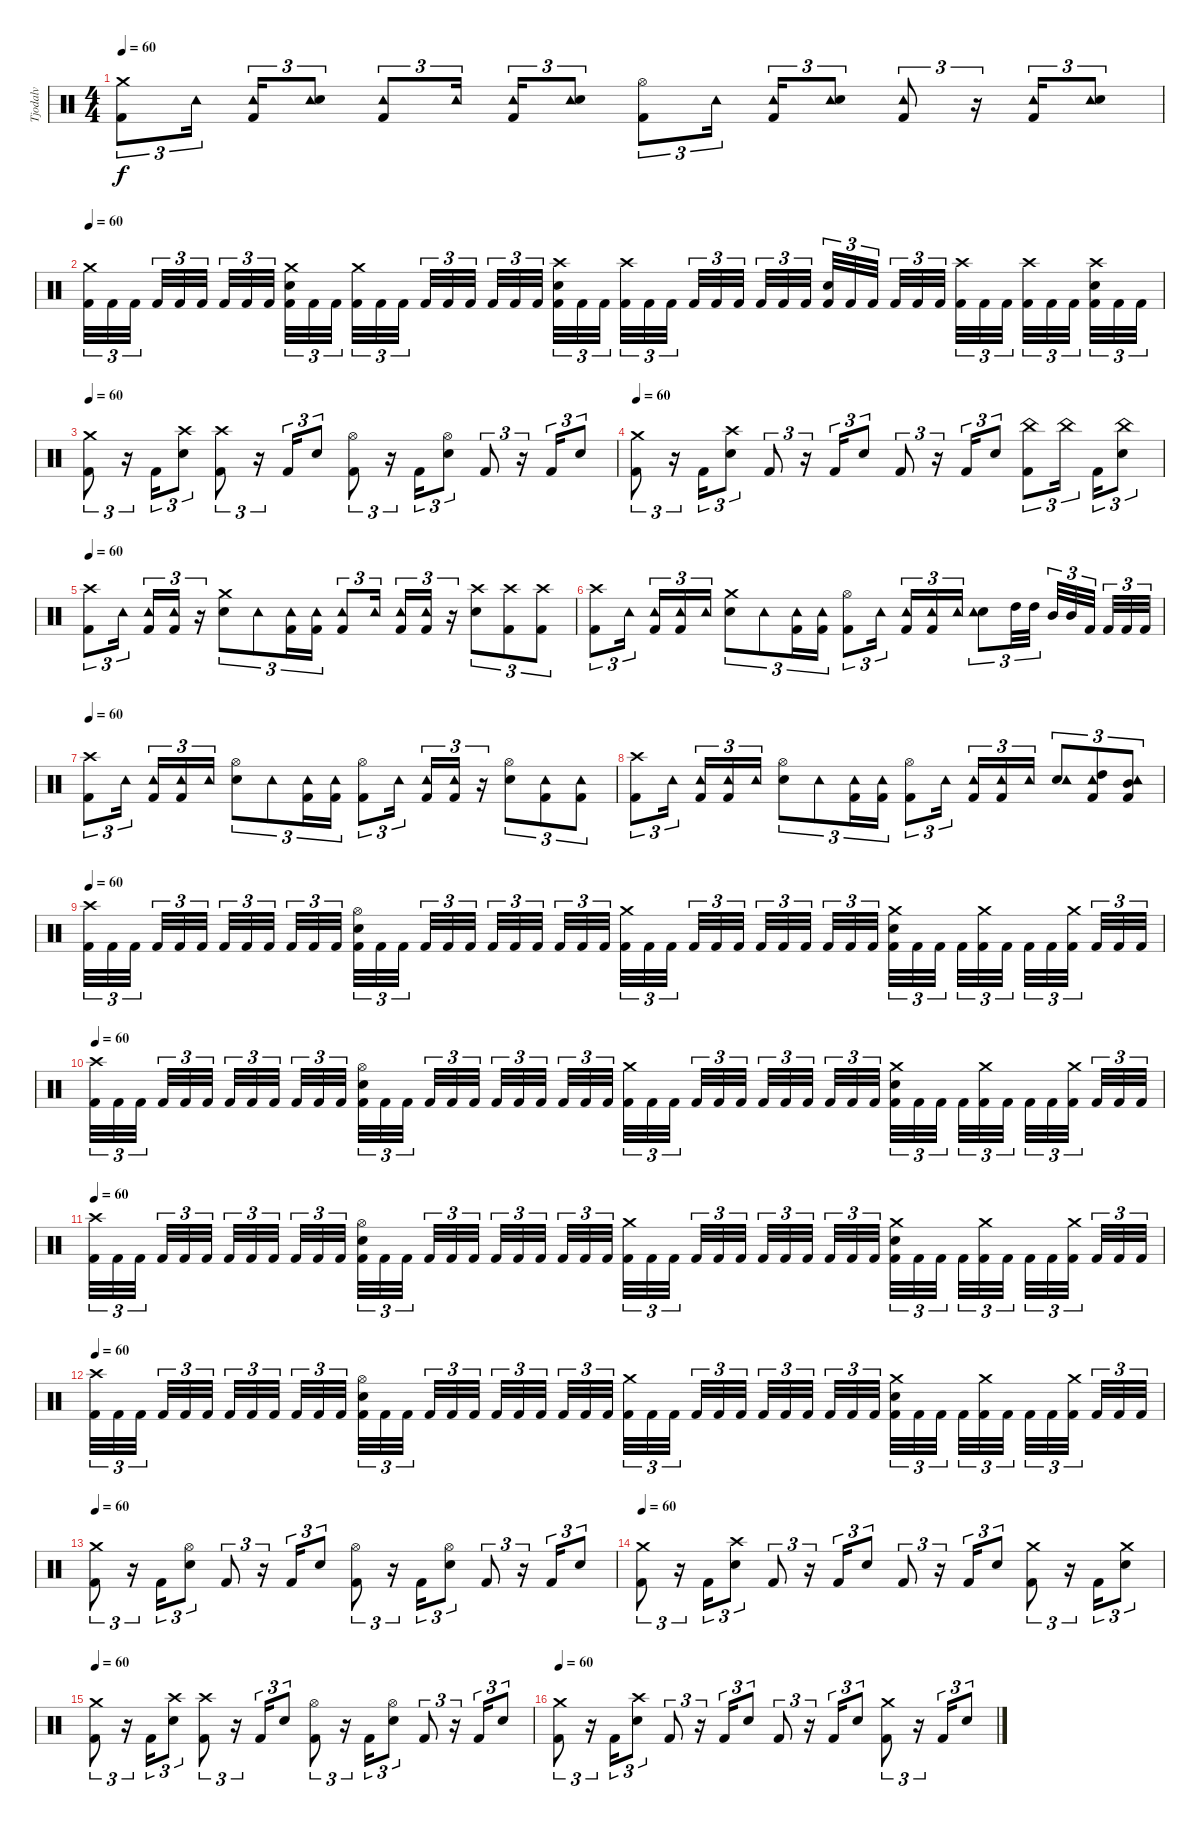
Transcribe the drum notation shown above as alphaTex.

\track ("Tjodalv" "Tjodalv") {instrument percussion}
\staff {score}
\articulation defaults
\ts (4 4)
\tempo 60
\clef neutral
\ks c
("Crash medium (hit)" "Kick (hit) 2").8{tu (3 2) dy f} "Tambourine (hit)".16{tu (3 2)} ("Tambourine (hit)" "Kick (hit) 2").16{tu (3 2)} ("Tambourine (hit)" "Snare (hit) 2").8{tu (3 2)} ("Kick (hit) 2" "Tambourine (hit)").8{tu (3 2)} "Tambourine (hit)".16{tu (3 2)} ("Tambourine (hit)" "Kick (hit) 2").16{tu (3 2)} ("Tambourine (hit)" "Snare (hit) 2").8{tu (3 2)} ("Hi-Hat (open)" "Kick (hit) 2").8{tu (3 2)} "Tambourine (hit)".16{tu (3 2)} ("Tambourine (hit)" "Kick (hit) 2").16{tu (3 2)} ("Tambourine (hit)" "Snare (hit) 2").8{tu (3 2)} ("Kick (hit) 2" "Tambourine (hit)").8{tu (3 2)} r.16{tu (3 2)} ("Tambourine (hit)" "Kick (hit) 2").16{tu (3 2)} ("Tambourine (hit)" "Snare (hit) 2").8{tu (3 2)} |
\tempo 60
("Kick (hit) 2" "Crash medium (hit)").32{tu (3 2)} "Kick (hit) 2".32{tu (3 2)} "Kick (hit) 2".32{tu (3 2)} "Kick (hit) 2".32{tu (3 2)} "Kick (hit) 2".32{tu (3 2)} "Kick (hit) 2".32{tu (3 2)} "Kick (hit) 2".32{tu (3 2)} "Kick (hit) 2".32{tu (3 2)} "Kick (hit) 2".32{tu (3 2)} ("Crash medium (hit)" "Kick (hit) 2" "Snare (hit) 2").32{tu (3 2)} "Kick (hit) 2".32{tu (3 2)} "Kick (hit) 2".32{tu (3 2)} ("Crash medium (hit)" "Kick (hit) 2").32{tu (3 2)} "Kick (hit) 2".32{tu (3 2)} "Kick (hit) 2".32{tu (3 2)} "Kick (hit) 2".32{tu (3 2)} "Kick (hit) 2".32{tu (3 2)} "Kick (hit) 2".32{tu (3 2)} "Kick (hit) 2".32{tu (3 2)} "Kick (hit) 2".32{tu (3 2)} "Kick (hit) 2".32{tu (3 2)} ("Crash high (hit)" "Kick (hit) 2" "Snare (hit) 2").32{tu (3 2)} "Kick (hit) 2".32{tu (3 2)} "Kick (hit) 2".32{tu (3 2)} ("Crash high (hit)" "Kick (hit) 2").32{tu (3 2)} "Kick (hit) 2".32{tu (3 2)} "Kick (hit) 2".32{tu (3 2)} "Kick (hit) 2".32{tu (3 2)} "Kick (hit) 2".32{tu (3 2)} "Kick (hit) 2".32{tu (3 2)} "Kick (hit) 2".32{tu (3 2)} "Kick (hit) 2".32{tu (3 2)} "Kick (hit) 2".32{tu (3 2)} ("Kick (hit) 2" "Snare (hit) 2").32{tu (3 2)} "Kick (hit) 2".32{tu (3 2)} "Kick (hit) 2".32{tu (3 2)} "Kick (hit) 2".32{tu (3 2)} "Kick (hit) 2".32{tu (3 2)} "Kick (hit) 2".32{tu (3 2)} ("Crash high (hit)" "Kick (hit) 2").32{tu (3 2)} "Kick (hit) 2".32{tu (3 2)} "Kick (hit) 2".32{tu (3 2)} ("Crash high (hit)" "Kick (hit) 2").32{tu (3 2)} "Kick (hit) 2".32{tu (3 2)} "Kick (hit) 2".32{tu (3 2)} ("Crash high (hit)" "Kick (hit) 2" "Snare (hit) 2").32{tu (3 2)} "Kick (hit) 2".32{tu (3 2)} "Kick (hit) 2".32{tu (3 2)} |
\tempo 60
("Crash medium (hit)" "Kick (hit) 2").8{tu (3 2)} r.16{tu (3 2)} "Kick (hit) 2".16{tu (3 2)} ("Crash high (hit)" "Snare (hit) 2").8{tu (3 2)} ("Crash high (hit)" "Kick (hit) 2").8{tu (3 2)} r.16{tu (3 2)} "Kick (hit) 2".16{tu (3 2)} "Snare (hit) 2".8{tu (3 2)} ("Hi-Hat (open)" "Kick (hit) 2").8{tu (3 2)} r.16{tu (3 2)} "Kick (hit) 2".16{tu (3 2)} ("Hi-Hat (open)" "Snare (hit) 2").8{tu (3 2)} "Kick (hit) 2".8{tu (3 2)} r.16{tu (3 2)} "Kick (hit) 2".16{tu (3 2)} "Snare (hit) 2".8{tu (3 2)} |
\tempo 60
("Crash medium (hit)" "Kick (hit) 2").8{tu (3 2)} r.16{tu (3 2)} "Kick (hit) 2".16{tu (3 2)} ("Crash high (hit)" "Snare (hit) 2").8{tu (3 2)} "Kick (hit) 2".8{tu (3 2)} r.16{tu (3 2)} "Kick (hit) 2".16{tu (3 2)} "Snare (hit) 2".8{tu (3 2)} "Kick (hit) 2".8{tu (3 2)} r.16{tu (3 2)} "Kick (hit) 2".16{tu (3 2)} "Snare (hit) 2".8{tu (3 2)} ("Kick (hit) 2" "China (hit)").8{tu (3 2)} "China (hit)".16{tu (3 2)} "Kick (hit) 2".16{tu (3 2)} ("China (hit)" "Snare (hit) 2").8{tu (3 2)} |
\tempo 60
("Crash high (hit)" "Kick (hit) 2").8{tu (3 2)} "Tambourine (hit)".16{tu (3 2)} ("Tambourine (hit)" "Kick (hit) 2").16{tu (3 2)} ("Tambourine (hit)" "Kick (hit) 2").16{tu (3 2)} r.16{tu (3 2)} ("Snare (hit) 2" "Crash medium (hit)").8{tu (3 2)} "Tambourine (hit)".8{tu (3 2)} ("Kick (hit) 2" "Tambourine (hit)").16{tu (3 2)} ("Kick (hit) 2" "Tambourine (hit)").16{tu (3 2)} ("Tambourine (hit)" "Kick (hit) 2").8{tu (3 2)} "Tambourine (hit)".16{tu (3 2)} ("Tambourine (hit)" "Kick (hit) 2").16{tu (3 2)} ("Tambourine (hit)" "Kick (hit) 2").16{tu (3 2)} r.16{tu (3 2)} ("Snare (hit) 2" "Crash high (hit)").8{tu (3 2)} ("Kick (hit) 2" "Crash high (hit)").8{tu (3 2)} ("Kick (hit) 2" "Crash high (hit)").8{tu (3 2)} |
("Crash high (hit)" "Kick (hit) 2").8{tu (3 2)} "Tambourine (hit)".16{tu (3 2)} ("Tambourine (hit)" "Kick (hit) 2").16{tu (3 2)} ("Tambourine (hit)" "Kick (hit) 2").16{tu (3 2)} "Tambourine (hit)".16{tu (3 2)} ("Snare (hit) 2" "Crash medium (hit)").8{tu (3 2)} "Tambourine (hit)".8{tu (3 2)} ("Kick (hit) 2" "Tambourine (hit)").16{tu (3 2)} ("Kick (hit) 2" "Tambourine (hit)").16{tu (3 2)} ("Hi-Hat (open)" "Kick (hit) 2").8{tu (3 2)} "Tambourine (hit)".16{tu (3 2)} ("Tambourine (hit)" "Kick (hit) 2").16{tu (3 2)} ("Tambourine (hit)" "Kick (hit) 2").16{tu (3 2)} "Tambourine (hit)".16{tu (3 2)} ("Snare (hit) 2" "Tambourine (hit)").8{tu (3 2)} "High Tom (hit)".32{tu (3 2)} "High Tom (hit)".32{tu (3 2)} "Mid Tom (hit)".32{tu (3 2)} "Mid Tom (hit)".32{tu (3 2)} "Kick (hit) 2".32{tu (3 2)} "Kick (hit) 2".32{tu (3 2)} "Kick (hit) 2".32{tu (3 2)} "Kick (hit) 2".32{tu (3 2)} |
\tempo 60
("Crash high (hit)" "Kick (hit) 2").8{tu (3 2)} "Tambourine (hit)".16{tu (3 2)} ("Kick (hit) 2" "Tambourine (hit)").16{tu (3 2)} ("Kick (hit) 2" "Tambourine (hit)").16{tu (3 2)} "Tambourine (hit)".16{tu (3 2)} ("Snare (hit) 2" "Hi-Hat (open)").8{tu (3 2)} "Tambourine (hit)".8{tu (3 2)} ("Kick (hit) 2" "Tambourine (hit)").16{tu (3 2)} ("Kick (hit) 2" "Tambourine (hit)").16{tu (3 2)} ("Hi-Hat (open)" "Kick (hit) 2").8{tu (3 2)} "Tambourine (hit)".16{tu (3 2)} ("Kick (hit) 2" "Tambourine (hit)").16{tu (3 2)} ("Kick (hit) 2" "Tambourine (hit)").16{tu (3 2)} r.16{tu (3 2)} ("Snare (hit) 2" "Hi-Hat (open)").8{tu (3 2)} ("Kick (hit) 2" "Tambourine (hit)").8{tu (3 2)} ("Kick (hit) 2" "Tambourine (hit)").8{tu (3 2)} |
("Crash high (hit)" "Kick (hit) 2").8{tu (3 2)} "Tambourine (hit)".16{tu (3 2)} ("Kick (hit) 2" "Tambourine (hit)").16{tu (3 2)} ("Kick (hit) 2" "Tambourine (hit)").16{tu (3 2)} "Tambourine (hit)".16{tu (3 2)} ("Snare (hit) 2" "Hi-Hat (open)").8{tu (3 2)} "Tambourine (hit)".8{tu (3 2)} ("Kick (hit) 2" "Tambourine (hit)").16{tu (3 2)} ("Kick (hit) 2" "Tambourine (hit)").16{tu (3 2)} ("Hi-Hat (open)" "Kick (hit) 2").8{tu (3 2)} "Tambourine (hit)".16{tu (3 2)} ("Kick (hit) 2" "Tambourine (hit)").16{tu (3 2)} ("Kick (hit) 2" "Tambourine (hit)").16{tu (3 2)} "Tambourine (hit)".16{tu (3 2)} ("Snare (hit) 2" "Tambourine (hit)").8{tu (3 2)} ("Kick (hit) 2" "High Tom (hit)" "Tambourine (hit)").8{tu (3 2)} ("Kick (hit) 2" "Mid Tom (hit)" "Tambourine (hit)").8{tu (3 2)} |
\tempo 60
("Kick (hit) 2" "Crash high (hit)").32{tu (3 2)} "Kick (hit) 2".32{tu (3 2)} "Kick (hit) 2".32{tu (3 2)} "Kick (hit) 2".32{tu (3 2)} "Kick (hit) 2".32{tu (3 2)} "Kick (hit) 2".32{tu (3 2)} "Kick (hit) 2".32{tu (3 2)} "Kick (hit) 2".32{tu (3 2)} "Kick (hit) 2".32{tu (3 2)} "Kick (hit) 2".32{tu (3 2)} "Kick (hit) 2".32{tu (3 2)} "Kick (hit) 2".32{tu (3 2)} ("Kick (hit) 2" "Snare (hit) 2" "Hi-Hat (open)").32{tu (3 2)} "Kick (hit) 2".32{tu (3 2)} "Kick (hit) 2".32{tu (3 2)} "Kick (hit) 2".32{tu (3 2)} "Kick (hit) 2".32{tu (3 2)} "Kick (hit) 2".32{tu (3 2)} "Kick (hit) 2".32{tu (3 2)} "Kick (hit) 2".32{tu (3 2)} "Kick (hit) 2".32{tu (3 2)} "Kick (hit) 2".32{tu (3 2)} "Kick (hit) 2".32{tu (3 2)} "Kick (hit) 2".32{tu (3 2)} ("Kick (hit) 2" "Crash medium (hit)").32{tu (3 2)} "Kick (hit) 2".32{tu (3 2)} "Kick (hit) 2".32{tu (3 2)} "Kick (hit) 2".32{tu (3 2)} "Kick (hit) 2".32{tu (3 2)} "Kick (hit) 2".32{tu (3 2)} "Kick (hit) 2".32{tu (3 2)} "Kick (hit) 2".32{tu (3 2)} "Kick (hit) 2".32{tu (3 2)} "Kick (hit) 2".32{tu (3 2)} "Kick (hit) 2".32{tu (3 2)} "Kick (hit) 2".32{tu (3 2)} ("Kick (hit) 2" "Snare (hit) 2" "Crash medium (hit)").32{tu (3 2)} "Kick (hit) 2".32{tu (3 2)} "Kick (hit) 2".32{tu (3 2)} "Kick (hit) 2".32{tu (3 2)} ("Kick (hit) 2" "Crash medium (hit)").32{tu (3 2)} "Kick (hit) 2".32{tu (3 2)} "Kick (hit) 2".32{tu (3 2)} "Kick (hit) 2".32{tu (3 2)} ("Kick (hit) 2" "Crash medium (hit)").32{tu (3 2)} "Kick (hit) 2".32{tu (3 2)} "Kick (hit) 2".32{tu (3 2)} "Kick (hit) 2".32{tu (3 2)} |
\tempo 60
("Kick (hit) 2" "Crash high (hit)").32{tu (3 2)} "Kick (hit) 2".32{tu (3 2)} "Kick (hit) 2".32{tu (3 2)} "Kick (hit) 2".32{tu (3 2)} "Kick (hit) 2".32{tu (3 2)} "Kick (hit) 2".32{tu (3 2)} "Kick (hit) 2".32{tu (3 2)} "Kick (hit) 2".32{tu (3 2)} "Kick (hit) 2".32{tu (3 2)} "Kick (hit) 2".32{tu (3 2)} "Kick (hit) 2".32{tu (3 2)} "Kick (hit) 2".32{tu (3 2)} ("Kick (hit) 2" "Snare (hit) 2" "Hi-Hat (open)").32{tu (3 2)} "Kick (hit) 2".32{tu (3 2)} "Kick (hit) 2".32{tu (3 2)} "Kick (hit) 2".32{tu (3 2)} "Kick (hit) 2".32{tu (3 2)} "Kick (hit) 2".32{tu (3 2)} "Kick (hit) 2".32{tu (3 2)} "Kick (hit) 2".32{tu (3 2)} "Kick (hit) 2".32{tu (3 2)} "Kick (hit) 2".32{tu (3 2)} "Kick (hit) 2".32{tu (3 2)} "Kick (hit) 2".32{tu (3 2)} ("Kick (hit) 2" "Crash medium (hit)").32{tu (3 2)} "Kick (hit) 2".32{tu (3 2)} "Kick (hit) 2".32{tu (3 2)} "Kick (hit) 2".32{tu (3 2)} "Kick (hit) 2".32{tu (3 2)} "Kick (hit) 2".32{tu (3 2)} "Kick (hit) 2".32{tu (3 2)} "Kick (hit) 2".32{tu (3 2)} "Kick (hit) 2".32{tu (3 2)} "Kick (hit) 2".32{tu (3 2)} "Kick (hit) 2".32{tu (3 2)} "Kick (hit) 2".32{tu (3 2)} ("Kick (hit) 2" "Snare (hit) 2" "Crash medium (hit)").32{tu (3 2)} "Kick (hit) 2".32{tu (3 2)} "Kick (hit) 2".32{tu (3 2)} "Kick (hit) 2".32{tu (3 2)} ("Kick (hit) 2" "Crash medium (hit)").32{tu (3 2)} "Kick (hit) 2".32{tu (3 2)} "Kick (hit) 2".32{tu (3 2)} "Kick (hit) 2".32{tu (3 2)} ("Kick (hit) 2" "Crash medium (hit)").32{tu (3 2)} "Kick (hit) 2".32{tu (3 2)} "Kick (hit) 2".32{tu (3 2)} "Kick (hit) 2".32{tu (3 2)} |
\tempo 60
("Kick (hit) 2" "Crash high (hit)").32{tu (3 2)} "Kick (hit) 2".32{tu (3 2)} "Kick (hit) 2".32{tu (3 2)} "Kick (hit) 2".32{tu (3 2)} "Kick (hit) 2".32{tu (3 2)} "Kick (hit) 2".32{tu (3 2)} "Kick (hit) 2".32{tu (3 2)} "Kick (hit) 2".32{tu (3 2)} "Kick (hit) 2".32{tu (3 2)} "Kick (hit) 2".32{tu (3 2)} "Kick (hit) 2".32{tu (3 2)} "Kick (hit) 2".32{tu (3 2)} ("Kick (hit) 2" "Snare (hit) 2" "Hi-Hat (open)").32{tu (3 2)} "Kick (hit) 2".32{tu (3 2)} "Kick (hit) 2".32{tu (3 2)} "Kick (hit) 2".32{tu (3 2)} "Kick (hit) 2".32{tu (3 2)} "Kick (hit) 2".32{tu (3 2)} "Kick (hit) 2".32{tu (3 2)} "Kick (hit) 2".32{tu (3 2)} "Kick (hit) 2".32{tu (3 2)} "Kick (hit) 2".32{tu (3 2)} "Kick (hit) 2".32{tu (3 2)} "Kick (hit) 2".32{tu (3 2)} ("Kick (hit) 2" "Crash medium (hit)").32{tu (3 2)} "Kick (hit) 2".32{tu (3 2)} "Kick (hit) 2".32{tu (3 2)} "Kick (hit) 2".32{tu (3 2)} "Kick (hit) 2".32{tu (3 2)} "Kick (hit) 2".32{tu (3 2)} "Kick (hit) 2".32{tu (3 2)} "Kick (hit) 2".32{tu (3 2)} "Kick (hit) 2".32{tu (3 2)} "Kick (hit) 2".32{tu (3 2)} "Kick (hit) 2".32{tu (3 2)} "Kick (hit) 2".32{tu (3 2)} ("Kick (hit) 2" "Snare (hit) 2" "Crash medium (hit)").32{tu (3 2)} "Kick (hit) 2".32{tu (3 2)} "Kick (hit) 2".32{tu (3 2)} "Kick (hit) 2".32{tu (3 2)} ("Kick (hit) 2" "Crash medium (hit)").32{tu (3 2)} "Kick (hit) 2".32{tu (3 2)} "Kick (hit) 2".32{tu (3 2)} "Kick (hit) 2".32{tu (3 2)} ("Kick (hit) 2" "Crash medium (hit)").32{tu (3 2)} "Kick (hit) 2".32{tu (3 2)} "Kick (hit) 2".32{tu (3 2)} "Kick (hit) 2".32{tu (3 2)} |
\tempo 60
("Kick (hit) 2" "Crash high (hit)").32{tu (3 2)} "Kick (hit) 2".32{tu (3 2)} "Kick (hit) 2".32{tu (3 2)} "Kick (hit) 2".32{tu (3 2)} "Kick (hit) 2".32{tu (3 2)} "Kick (hit) 2".32{tu (3 2)} "Kick (hit) 2".32{tu (3 2)} "Kick (hit) 2".32{tu (3 2)} "Kick (hit) 2".32{tu (3 2)} "Kick (hit) 2".32{tu (3 2)} "Kick (hit) 2".32{tu (3 2)} "Kick (hit) 2".32{tu (3 2)} ("Kick (hit) 2" "Snare (hit) 2" "Hi-Hat (open)").32{tu (3 2)} "Kick (hit) 2".32{tu (3 2)} "Kick (hit) 2".32{tu (3 2)} "Kick (hit) 2".32{tu (3 2)} "Kick (hit) 2".32{tu (3 2)} "Kick (hit) 2".32{tu (3 2)} "Kick (hit) 2".32{tu (3 2)} "Kick (hit) 2".32{tu (3 2)} "Kick (hit) 2".32{tu (3 2)} "Kick (hit) 2".32{tu (3 2)} "Kick (hit) 2".32{tu (3 2)} "Kick (hit) 2".32{tu (3 2)} ("Kick (hit) 2" "Crash medium (hit)").32{tu (3 2)} "Kick (hit) 2".32{tu (3 2)} "Kick (hit) 2".32{tu (3 2)} "Kick (hit) 2".32{tu (3 2)} "Kick (hit) 2".32{tu (3 2)} "Kick (hit) 2".32{tu (3 2)} "Kick (hit) 2".32{tu (3 2)} "Kick (hit) 2".32{tu (3 2)} "Kick (hit) 2".32{tu (3 2)} "Kick (hit) 2".32{tu (3 2)} "Kick (hit) 2".32{tu (3 2)} "Kick (hit) 2".32{tu (3 2)} ("Kick (hit) 2" "Snare (hit) 2" "Crash medium (hit)").32{tu (3 2)} "Kick (hit) 2".32{tu (3 2)} "Kick (hit) 2".32{tu (3 2)} "Kick (hit) 2".32{tu (3 2)} ("Kick (hit) 2" "Crash medium (hit)").32{tu (3 2)} "Kick (hit) 2".32{tu (3 2)} "Kick (hit) 2".32{tu (3 2)} "Kick (hit) 2".32{tu (3 2)} ("Kick (hit) 2" "Crash medium (hit)").32{tu (3 2)} "Kick (hit) 2".32{tu (3 2)} "Kick (hit) 2".32{tu (3 2)} "Kick (hit) 2".32{tu (3 2)} |
\tempo 60
("Crash medium (hit)" "Kick (hit) 2").8{tu (3 2)} r.16{tu (3 2)} "Kick (hit) 2".16{tu (3 2)} ("Hi-Hat (open)" "Snare (hit) 2").8{tu (3 2)} "Kick (hit) 2".8{tu (3 2)} r.16{tu (3 2)} "Kick (hit) 2".16{tu (3 2)} "Snare (hit) 2".8{tu (3 2)} ("Hi-Hat (open)" "Kick (hit) 2").8{tu (3 2)} r.16{tu (3 2)} "Kick (hit) 2".16{tu (3 2)} ("Hi-Hat (open)" "Snare (hit) 2").8{tu (3 2)} "Kick (hit) 2".8{tu (3 2)} r.16{tu (3 2)} "Kick (hit) 2".16{tu (3 2)} "Snare (hit) 2".8{tu (3 2)} |
\tempo 60
("Crash medium (hit)" "Kick (hit) 2").8{tu (3 2)} r.16{tu (3 2)} "Kick (hit) 2".16{tu (3 2)} ("Crash high (hit)" "Snare (hit) 2").8{tu (3 2)} "Kick (hit) 2".8{tu (3 2)} r.16{tu (3 2)} "Kick (hit) 2".16{tu (3 2)} "Snare (hit) 2".8{tu (3 2)} "Kick (hit) 2".8{tu (3 2)} r.16{tu (3 2)} "Kick (hit) 2".16{tu (3 2)} "Snare (hit) 2".8{tu (3 2)} ("Kick (hit) 2" "Crash medium (hit)").8{tu (3 2)} r.16{tu (3 2)} "Kick (hit) 2".16{tu (3 2)} ("Crash medium (hit)" "Snare (hit) 2").8{tu (3 2)} |
\tempo 60
("Crash medium (hit)" "Kick (hit) 2").8{tu (3 2)} r.16{tu (3 2)} "Kick (hit) 2".16{tu (3 2)} ("Crash high (hit)" "Snare (hit) 2").8{tu (3 2)} ("Crash high (hit)" "Kick (hit) 2").8{tu (3 2)} r.16{tu (3 2)} "Kick (hit) 2".16{tu (3 2)} "Snare (hit) 2".8{tu (3 2)} ("Hi-Hat (open)" "Kick (hit) 2").8{tu (3 2)} r.16{tu (3 2)} "Kick (hit) 2".16{tu (3 2)} ("Hi-Hat (open)" "Snare (hit) 2").8{tu (3 2)} "Kick (hit) 2".8{tu (3 2)} r.16{tu (3 2)} "Kick (hit) 2".16{tu (3 2)} "Snare (hit) 2".8{tu (3 2)} |
\tempo 60
("Crash medium (hit)" "Kick (hit) 2").8{tu (3 2)} r.16{tu (3 2)} "Kick (hit) 2".16{tu (3 2)} ("Crash high (hit)" "Snare (hit) 2").8{tu (3 2)} "Kick (hit) 2".8{tu (3 2)} r.16{tu (3 2)} "Kick (hit) 2".16{tu (3 2)} "Snare (hit) 2".8{tu (3 2)} "Kick (hit) 2".8{tu (3 2)} r.16{tu (3 2)} "Kick (hit) 2".16{tu (3 2)} "Snare (hit) 2".8{tu (3 2)} ("Kick (hit) 2" "Crash medium (hit)").8{tu (3 2)} r.16{tu (3 2)} "Kick (hit) 2".16{tu (3 2)} "Snare (hit) 2".8{tu (3 2)}
